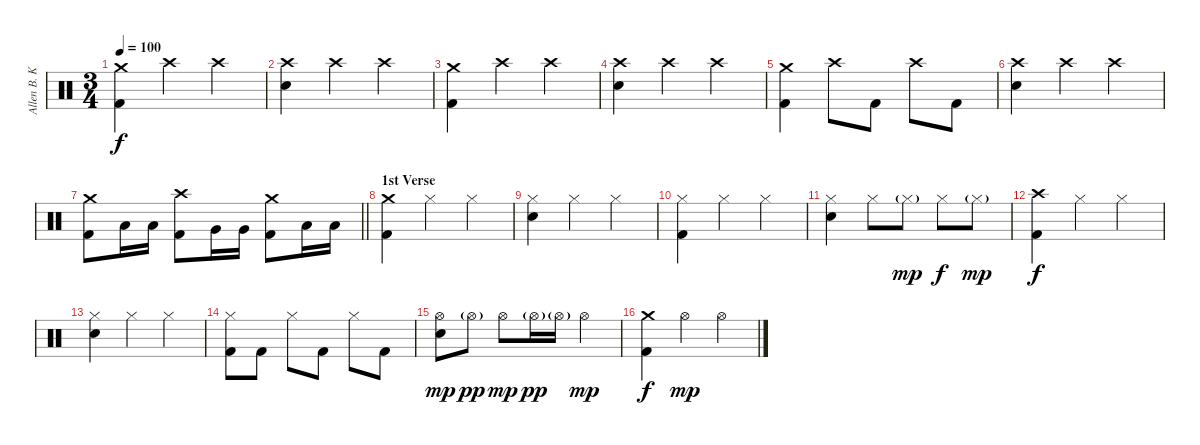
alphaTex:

\track ("Allen B. Konstanz (Drums)" "Allen B. K") {instrument percussion}
\staff {score}
\articulation defaults
\ts (3 4)
\tempo 100
\clef neutral
\ks c
("Crash medium (hit)" "Kick (hit) 2").4{dy f} "Crash high (hit)".4 "Crash high (hit)".4 |
("Crash high (hit)" "Snare (hit) 2").4 "Crash high (hit)".4 "Crash high (hit)".4 |
("Crash medium (hit)" "Kick (hit) 2").4 "Crash high (hit)".4 "Crash high (hit)".4 |
("Crash high (hit)" "Snare (hit) 2").4 "Crash high (hit)".4 "Crash high (hit)".4 |
("Crash medium (hit)" "Kick (hit) 2").4 "Crash high (hit)".8 "Kick (hit) 2".8 "Crash high (hit)".8 "Kick (hit) 2".8 |
("Crash high (hit)" "Snare (hit) 2").4 "Crash high (hit)".4 "Crash high (hit)".4 |
\barLineRight lightlight
("Crash medium (hit)" "Kick (hit) 2").8 "Low Tom (hit)".16 "Low Tom (hit)".16 ("Crash high (hit)" "Kick (hit) 2").8 "Very Low Tom (hit)".16 "Very Low Tom (hit)".16 ("Crash medium (hit)" "Kick (hit) 2").8 "Low Floor Tom (hit)".16 "Low Floor Tom (hit)".16 |
\section ("" "1st Verse")
("Crash medium (hit)" "Kick (hit) 2").4 "Hi-Hat (closed)".4 "Hi-Hat (closed)".4 |
("Hi-Hat (closed)" "Snare (hit) 2").4 "Hi-Hat (closed)".4 "Hi-Hat (closed)".4 |
("Hi-Hat (closed)" "Kick (hit) 2").4 "Hi-Hat (closed)".4 "Hi-Hat (closed)".4 |
("Hi-Hat (closed)" "Snare (hit) 2").4 "Hi-Hat (closed)".8 "Hi-Hat (closed)"{g}.8{dy mp} "Hi-Hat (closed)".8{dy f} "Hi-Hat (closed)"{g}.8{dy mp} |
("Crash high (hit)" "Kick (hit) 2").4{dy f} "Hi-Hat (closed)".4 "Hi-Hat (closed)".4 |
("Hi-Hat (closed)" "Snare (hit) 2").4 "Hi-Hat (closed)".4 "Hi-Hat (closed)".4 |
("Hi-Hat (closed)" "Kick (hit) 2").8 "Kick (hit) 2".8 "Hi-Hat (closed)".8 "Kick (hit) 2".8 "Hi-Hat (closed)".8 "Kick (hit) 2".8 |
("Hi-Hat (open)" "Snare (hit) 2").8{dy mp} "Hi-Hat (open)"{g}.8{dy pp} "Hi-Hat (open)".8{dy mp} "Hi-Hat (open)"{g}.16{dy pp} "Hi-Hat (open)"{g}.16 "Hi-Hat (open)".4{dy mp} |
("Crash medium (hit)" "Kick (hit) 2").4{dy f} "Hi-Hat (open)".4{dy mp} "Hi-Hat (open)".4
